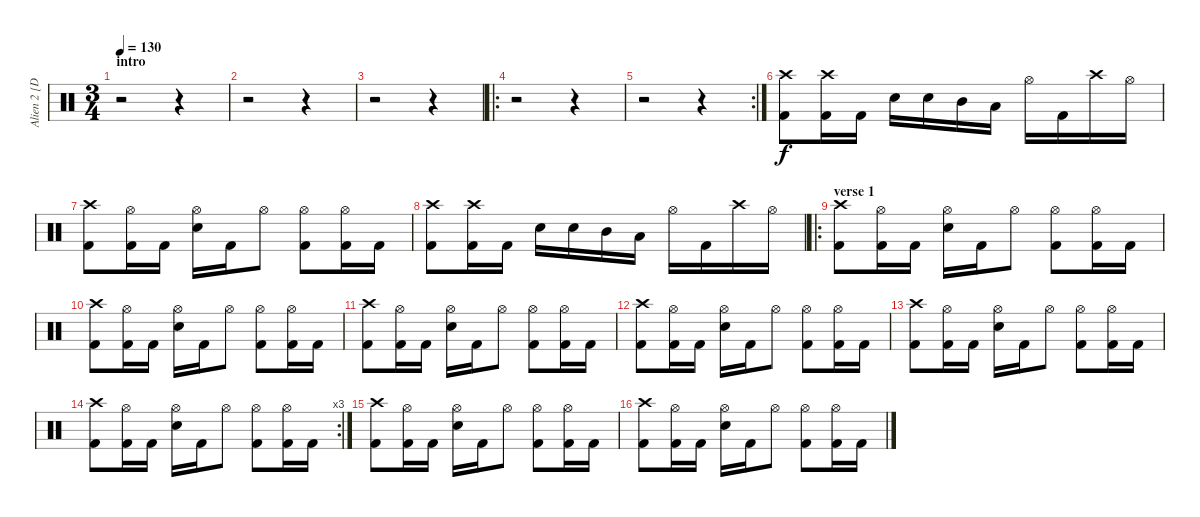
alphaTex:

\track ("Alien 2 [Drums]" "Alien 2 [D") {instrument percussion}
\staff {score}
\articulation defaults
\ts (3 4)
\section ("" "intro")
\tempo 130
\clef neutral
\ks c
r.2{dy f} r.4 |
r.2 r.4 |
r.2 r.4 |
\ro
r.2 r.4 |
\rc 2
r.2 r.4 |
("Crash high (hit)" "Kick (hit) 2").8 ("Crash high (hit)" "Kick (hit) 2").16 "Kick (hit) 2".16 "Electric Snare (hit)".16 "Electric Snare (hit)".16 "Mid Tom (hit)".16 "Low Tom (hit)".16 "Hi-Hat (open)".16 "Kick (hit) 2".16 "Crash high (hit)".16 "Hi-Hat (open)".16 |
("Crash high (hit)" "Kick (hit) 2").8 ("Hi-Hat (open)" "Kick (hit) 2").16 "Kick (hit) 2".16 ("Hi-Hat (open)" "Electric Snare (hit)").16 "Kick (hit) 2".16 "Hi-Hat (open)".8 ("Hi-Hat (open)" "Kick (hit) 2").8 ("Hi-Hat (open)" "Kick (hit) 2").16 "Kick (hit) 2".16 |
("Crash high (hit)" "Kick (hit) 2").8 ("Crash high (hit)" "Kick (hit) 2").16 "Kick (hit) 2".16 "Electric Snare (hit)".16 "Electric Snare (hit)".16 "Mid Tom (hit)".16 "Low Tom (hit)".16 "Hi-Hat (open)".16 "Kick (hit) 2".16 "Crash high (hit)".16 "Hi-Hat (open)".16 |
\ro
\section ("" "verse 1")
("Crash high (hit)" "Kick (hit) 2").8 ("Hi-Hat (open)" "Kick (hit) 2").16 "Kick (hit) 2".16 ("Hi-Hat (open)" "Electric Snare (hit)").16 "Kick (hit) 2".16 "Hi-Hat (open)".8 ("Hi-Hat (open)" "Kick (hit) 2").8 ("Hi-Hat (open)" "Kick (hit) 2").16 "Kick (hit) 2".16 |
("Crash high (hit)" "Kick (hit) 2").8 ("Hi-Hat (open)" "Kick (hit) 2").16 "Kick (hit) 2".16 ("Hi-Hat (open)" "Electric Snare (hit)").16 "Kick (hit) 2".16 "Hi-Hat (open)".8 ("Hi-Hat (open)" "Kick (hit) 2").8 ("Hi-Hat (open)" "Kick (hit) 2").16 "Kick (hit) 2".16 |
("Crash high (hit)" "Kick (hit) 2").8 ("Hi-Hat (open)" "Kick (hit) 2").16 "Kick (hit) 2".16 ("Hi-Hat (open)" "Electric Snare (hit)").16 "Kick (hit) 2".16 "Hi-Hat (open)".8 ("Hi-Hat (open)" "Kick (hit) 2").8 ("Hi-Hat (open)" "Kick (hit) 2").16 "Kick (hit) 2".16 |
("Crash high (hit)" "Kick (hit) 2").8 ("Hi-Hat (open)" "Kick (hit) 2").16 "Kick (hit) 2".16 ("Hi-Hat (open)" "Electric Snare (hit)").16 "Kick (hit) 2".16 "Hi-Hat (open)".8 ("Hi-Hat (open)" "Kick (hit) 2").8 ("Hi-Hat (open)" "Kick (hit) 2").16 "Kick (hit) 2".16 |
("Crash high (hit)" "Kick (hit) 2").8 ("Hi-Hat (open)" "Kick (hit) 2").16 "Kick (hit) 2".16 ("Hi-Hat (open)" "Electric Snare (hit)").16 "Kick (hit) 2".16 "Hi-Hat (open)".8 ("Hi-Hat (open)" "Kick (hit) 2").8 ("Hi-Hat (open)" "Kick (hit) 2").16 "Kick (hit) 2".16 |
\rc 3
("Crash high (hit)" "Kick (hit) 2").8 ("Hi-Hat (open)" "Kick (hit) 2").16 "Kick (hit) 2".16 ("Hi-Hat (open)" "Electric Snare (hit)").16 "Kick (hit) 2".16 "Hi-Hat (open)".8 ("Hi-Hat (open)" "Kick (hit) 2").8 ("Hi-Hat (open)" "Kick (hit) 2").16 "Kick (hit) 2".16 |
("Crash high (hit)" "Kick (hit) 2").8 ("Hi-Hat (open)" "Kick (hit) 2").16 "Kick (hit) 2".16 ("Hi-Hat (open)" "Electric Snare (hit)").16 "Kick (hit) 2".16 "Hi-Hat (open)".8 ("Hi-Hat (open)" "Kick (hit) 2").8 ("Hi-Hat (open)" "Kick (hit) 2").16 "Kick (hit) 2".16 |
("Crash high (hit)" "Kick (hit) 2").8 ("Hi-Hat (open)" "Kick (hit) 2").16 "Kick (hit) 2".16 ("Hi-Hat (open)" "Electric Snare (hit)").16 "Kick (hit) 2".16 "Hi-Hat (open)".8 ("Hi-Hat (open)" "Kick (hit) 2").8 ("Hi-Hat (open)" "Kick (hit) 2").16 "Kick (hit) 2".16
